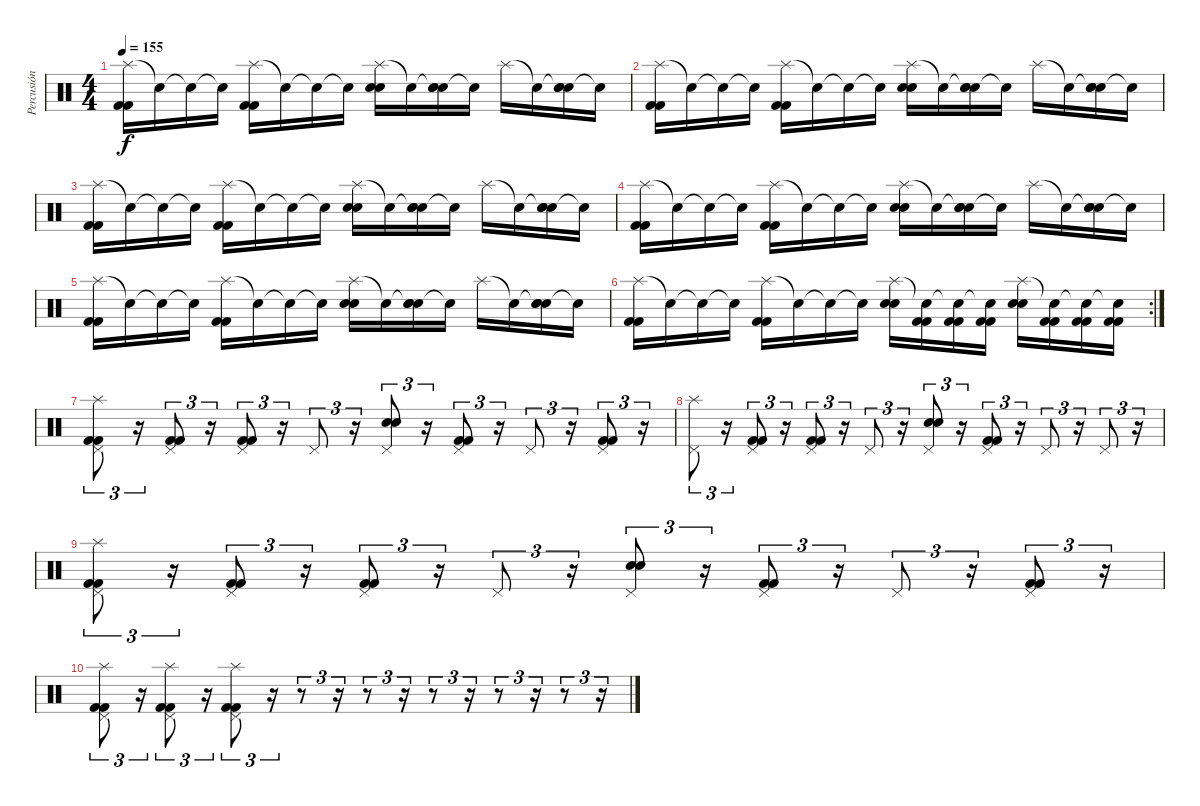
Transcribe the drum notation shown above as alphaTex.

\track ("Percusión" "Percusión") {instrument percussion}
\staff {score}
\articulation defaults
\ts (4 4)
\tempo 155
\clef neutral
\ks c
("Splash (hit)" "Kick (hit) 2" "Kick (hit) 2").16{dy f} "Snare (hit)"{t}.16 "Snare (hit)"{t}.16 "Snare (hit)"{t}.16 ("Splash (hit)" "Kick (hit) 2" "Kick (hit) 2").16 "Snare (hit)"{t}.16 "Snare (hit)"{t}.16 "Snare (hit)"{t}.16 ("Splash (hit)" "Electric Snare (hit)" "Electric Snare (hit)").16 "Snare (hit)"{t}.16 ("Snare (hit)"{t} "Electric Snare (hit)" "Electric Snare (hit)").16 "Snare (hit)"{t}.16 "Splash (hit)".16 "Snare (hit)"{t}.16 ("Snare (hit)"{t} "Electric Snare (hit)" "Electric Snare (hit)").16 "Snare (hit)"{t}.16 |
("Splash (hit)" "Kick (hit) 2" "Kick (hit) 2").16 "Snare (hit)"{t}.16 "Snare (hit)"{t}.16 "Snare (hit)"{t}.16 ("Splash (hit)" "Kick (hit) 2" "Kick (hit) 2").16 "Snare (hit)"{t}.16 "Snare (hit)"{t}.16 "Snare (hit)"{t}.16 ("Splash (hit)" "Electric Snare (hit)" "Electric Snare (hit)").16 "Snare (hit)"{t}.16 ("Snare (hit)"{t} "Electric Snare (hit)" "Electric Snare (hit)").16 "Snare (hit)"{t}.16 "Splash (hit)".16 "Snare (hit)"{t}.16 ("Snare (hit)"{t} "Electric Snare (hit)" "Electric Snare (hit)").16 "Snare (hit)"{t}.16 |
("Splash (hit)" "Kick (hit) 2" "Kick (hit) 2").16 "Snare (hit)"{t}.16 "Snare (hit)"{t}.16 "Snare (hit)"{t}.16 ("Splash (hit)" "Kick (hit) 2" "Kick (hit) 2").16 "Snare (hit)"{t}.16 "Snare (hit)"{t}.16 "Snare (hit)"{t}.16 ("Splash (hit)" "Electric Snare (hit)" "Electric Snare (hit)").16 "Snare (hit)"{t}.16 ("Snare (hit)"{t} "Electric Snare (hit)" "Electric Snare (hit)").16 "Snare (hit)"{t}.16 "Splash (hit)".16 "Snare (hit)"{t}.16 ("Snare (hit)"{t} "Electric Snare (hit)" "Electric Snare (hit)").16 "Snare (hit)"{t}.16 |
("Splash (hit)" "Kick (hit) 2" "Kick (hit) 2").16 "Snare (hit)"{t}.16 "Snare (hit)"{t}.16 "Snare (hit)"{t}.16 ("Splash (hit)" "Kick (hit) 2" "Kick (hit) 2").16 "Snare (hit)"{t}.16 "Snare (hit)"{t}.16 "Snare (hit)"{t}.16 ("Splash (hit)" "Electric Snare (hit)" "Electric Snare (hit)").16 "Snare (hit)"{t}.16 ("Snare (hit)"{t} "Electric Snare (hit)" "Electric Snare (hit)").16 "Snare (hit)"{t}.16 "Splash (hit)".16 "Snare (hit)"{t}.16 ("Snare (hit)"{t} "Electric Snare (hit)" "Electric Snare (hit)").16 "Snare (hit)"{t}.16 |
("Splash (hit)" "Kick (hit) 2" "Kick (hit) 2").16 "Snare (hit)"{t}.16 "Snare (hit)"{t}.16 "Snare (hit)"{t}.16 ("Splash (hit)" "Kick (hit) 2" "Kick (hit) 2").16 "Snare (hit)"{t}.16 "Snare (hit)"{t}.16 "Snare (hit)"{t}.16 ("Splash (hit)" "Electric Snare (hit)" "Electric Snare (hit)").16 "Snare (hit)"{t}.16 ("Snare (hit)"{t} "Electric Snare (hit)" "Electric Snare (hit)").16 "Snare (hit)"{t}.16 "Splash (hit)".16 "Snare (hit)"{t}.16 ("Snare (hit)"{t} "Electric Snare (hit)" "Electric Snare (hit)").16 "Snare (hit)"{t}.16 |
\rc 2
("Splash (hit)" "Kick (hit) 2" "Kick (hit) 2").16 "Snare (hit)"{t}.16 "Snare (hit)"{t}.16 "Snare (hit)"{t}.16 ("Splash (hit)" "Kick (hit) 2" "Kick (hit) 2").16 "Snare (hit)"{t}.16 "Snare (hit)"{t}.16 "Snare (hit)"{t}.16 ("Splash (hit)" "Electric Snare (hit)" "Electric Snare (hit)").16 ("Snare (hit)"{t} "Kick (hit) 2" "Kick (hit) 2").16 ("Snare (hit)"{t} "Kick (hit) 2" "Kick (hit) 2").16 ("Snare (hit)"{t} "Kick (hit) 2" "Kick (hit) 2").16 ("Splash (hit)" "Electric Snare (hit)" "Electric Snare (hit)").16 ("Snare (hit)"{t} "Kick (hit) 2" "Kick (hit) 2").16 ("Snare (hit)"{t} "Kick (hit) 2" "Kick (hit) 2").16 ("Snare (hit)"{t} "Kick (hit) 2" "Kick (hit) 2").16 |
("Pedal Hi-Hat (hit)" "Splash (hit)" "Kick (hit) 2" "Kick (hit) 2").8{tu (3 2)} r.16{tu (3 2)} ("Pedal Hi-Hat (hit)" "Kick (hit) 2" "Kick (hit) 2").8{tu (3 2)} r.16{tu (3 2)} ("Pedal Hi-Hat (hit)" "Kick (hit) 2" "Kick (hit) 2").8{tu (3 2)} r.16{tu (3 2)} "Pedal Hi-Hat (hit)".8{tu (3 2)} r.16{tu (3 2)} ("Pedal Hi-Hat (hit)" "Electric Snare (hit)" "Electric Snare (hit)").8{tu (3 2)} r.16{tu (3 2)} ("Pedal Hi-Hat (hit)" "Kick (hit) 2" "Kick (hit) 2").8{tu (3 2)} r.16{tu (3 2)} "Pedal Hi-Hat (hit)".8{tu (3 2)} r.16{tu (3 2)} ("Pedal Hi-Hat (hit)" "Kick (hit) 2" "Kick (hit) 2").8{tu (3 2)} r.16{tu (3 2)} |
("Pedal Hi-Hat (hit)" "Splash (hit)").8{tu (3 2)} r.16{tu (3 2)} ("Pedal Hi-Hat (hit)" "Kick (hit) 2" "Kick (hit) 2").8{tu (3 2)} r.16{tu (3 2)} ("Pedal Hi-Hat (hit)" "Kick (hit) 2" "Kick (hit) 2").8{tu (3 2)} r.16{tu (3 2)} "Pedal Hi-Hat (hit)".8{tu (3 2)} r.16{tu (3 2)} ("Pedal Hi-Hat (hit)" "Electric Snare (hit)" "Electric Snare (hit)").8{tu (3 2)} r.16{tu (3 2)} ("Pedal Hi-Hat (hit)" "Kick (hit) 2" "Kick (hit) 2").8{tu (3 2)} r.16{tu (3 2)} "Pedal Hi-Hat (hit)".8{tu (3 2)} r.16{tu (3 2)} "Pedal Hi-Hat (hit)".8{tu (3 2)} r.16{tu (3 2)} |
("Pedal Hi-Hat (hit)" "Splash (hit)" "Kick (hit) 2" "Kick (hit) 2").8{tu (3 2)} r.16{tu (3 2)} ("Pedal Hi-Hat (hit)" "Kick (hit) 2" "Kick (hit) 2").8{tu (3 2)} r.16{tu (3 2)} ("Pedal Hi-Hat (hit)" "Kick (hit) 2" "Kick (hit) 2").8{tu (3 2)} r.16{tu (3 2)} "Pedal Hi-Hat (hit)".8{tu (3 2)} r.16{tu (3 2)} ("Pedal Hi-Hat (hit)" "Electric Snare (hit)" "Electric Snare (hit)").8{tu (3 2)} r.16{tu (3 2)} ("Pedal Hi-Hat (hit)" "Kick (hit) 2" "Kick (hit) 2").8{tu (3 2)} r.16{tu (3 2)} "Pedal Hi-Hat (hit)".8{tu (3 2)} r.16{tu (3 2)} ("Pedal Hi-Hat (hit)" "Kick (hit) 2" "Kick (hit) 2").8{tu (3 2)} r.16{tu (3 2)} |
("Pedal Hi-Hat (hit)" "Splash (hit)" "Kick (hit) 2" "Kick (hit) 2").8{tu (3 2)} r.16{tu (3 2)} ("Pedal Hi-Hat (hit)" "Splash (hit)" "Kick (hit) 2" "Kick (hit) 2").8{tu (3 2)} r.16{tu (3 2)} ("Pedal Hi-Hat (hit)" "Splash (hit)" "Kick (hit) 2" "Kick (hit) 2").8{tu (3 2)} r.16{tu (3 2)} r.8{tu (3 2)} r.16{tu (3 2)} r.8{tu (3 2)} r.16{tu (3 2)} r.8{tu (3 2)} r.16{tu (3 2)} r.8{tu (3 2)} r.16{tu (3 2)} r.8{tu (3 2)} r.16{tu (3 2)}
